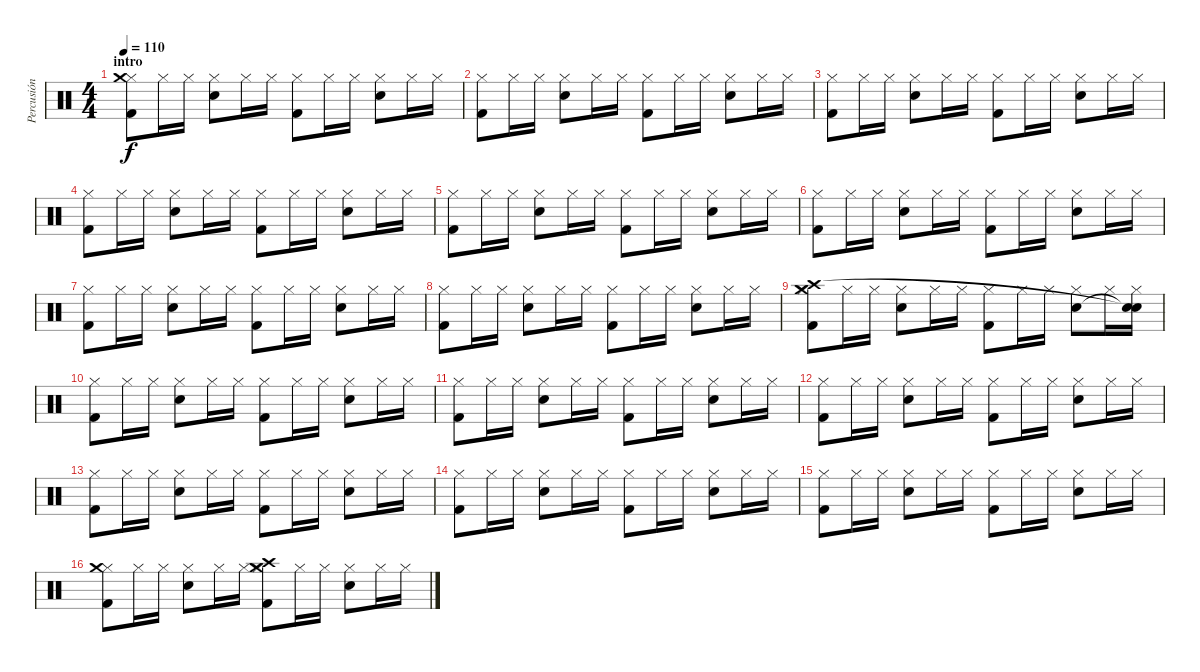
\track ("Percusión" "Percusión") {instrument percussion}
\staff {score}
\articulation defaults
\ts (4 4)
\section ("" "intro")
\tempo 110
\clef neutral
\ks c
("Hi-Hat (closed)" "Kick (hit) 2" "Crash medium (hit)").8{dy f} "Hi-Hat (closed)".16 "Hi-Hat (closed)".16 ("Hi-Hat (closed)" "Snare (hit) 2").8 "Hi-Hat (closed)".16 "Hi-Hat (closed)".16 ("Hi-Hat (closed)" "Kick (hit) 2").8 "Hi-Hat (closed)".16 "Hi-Hat (closed)".16 ("Hi-Hat (closed)" "Snare (hit) 2").8 "Hi-Hat (closed)".16 "Hi-Hat (closed)".16 |
("Hi-Hat (closed)" "Kick (hit) 2").8 "Hi-Hat (closed)".16 "Hi-Hat (closed)".16 ("Hi-Hat (closed)" "Snare (hit) 2").8 "Hi-Hat (closed)".16 "Hi-Hat (closed)".16 ("Hi-Hat (closed)" "Kick (hit) 2").8 "Hi-Hat (closed)".16 "Hi-Hat (closed)".16 ("Hi-Hat (closed)" "Snare (hit) 2").8 "Hi-Hat (closed)".16 "Hi-Hat (closed)".16 |
("Hi-Hat (closed)" "Kick (hit) 2").8 "Hi-Hat (closed)".16 "Hi-Hat (closed)".16 ("Hi-Hat (closed)" "Snare (hit) 2").8 "Hi-Hat (closed)".16 "Hi-Hat (closed)".16 ("Hi-Hat (closed)" "Kick (hit) 2").8 "Hi-Hat (closed)".16 "Hi-Hat (closed)".16 ("Hi-Hat (closed)" "Snare (hit) 2").8 "Hi-Hat (closed)".16 "Hi-Hat (closed)".16 |
("Hi-Hat (closed)" "Kick (hit) 2").8 "Hi-Hat (closed)".16 "Hi-Hat (closed)".16 ("Hi-Hat (closed)" "Snare (hit) 2").8 "Hi-Hat (closed)".16 "Hi-Hat (closed)".16 ("Hi-Hat (closed)" "Kick (hit) 2").8 "Hi-Hat (closed)".16 "Hi-Hat (closed)".16 ("Hi-Hat (closed)" "Snare (hit) 2").8 "Hi-Hat (closed)".16 "Hi-Hat (closed)".16 |
("Hi-Hat (closed)" "Kick (hit) 2").8 "Hi-Hat (closed)".16 "Hi-Hat (closed)".16 ("Hi-Hat (closed)" "Snare (hit) 2").8 "Hi-Hat (closed)".16 "Hi-Hat (closed)".16 ("Hi-Hat (closed)" "Kick (hit) 2").8 "Hi-Hat (closed)".16 "Hi-Hat (closed)".16 ("Hi-Hat (closed)" "Snare (hit) 2").8 "Hi-Hat (closed)".16 "Hi-Hat (closed)".16 |
("Hi-Hat (closed)" "Kick (hit) 2").8 "Hi-Hat (closed)".16 "Hi-Hat (closed)".16 ("Hi-Hat (closed)" "Snare (hit) 2").8 "Hi-Hat (closed)".16 "Hi-Hat (closed)".16 ("Hi-Hat (closed)" "Kick (hit) 2").8 "Hi-Hat (closed)".16 "Hi-Hat (closed)".16 ("Hi-Hat (closed)" "Snare (hit) 2").8 "Hi-Hat (closed)".16 "Hi-Hat (closed)".16 |
("Hi-Hat (closed)" "Kick (hit) 2").8 "Hi-Hat (closed)".16 "Hi-Hat (closed)".16 ("Hi-Hat (closed)" "Snare (hit) 2").8 "Hi-Hat (closed)".16 "Hi-Hat (closed)".16 ("Hi-Hat (closed)" "Kick (hit) 2").8 "Hi-Hat (closed)".16 "Hi-Hat (closed)".16 ("Hi-Hat (closed)" "Snare (hit) 2").8 "Hi-Hat (closed)".16 "Hi-Hat (closed)".16 |
("Hi-Hat (closed)" "Kick (hit) 2").8 "Hi-Hat (closed)".16 "Hi-Hat (closed)".16 ("Hi-Hat (closed)" "Snare (hit) 2").8 "Hi-Hat (closed)".16 "Hi-Hat (closed)".16 ("Hi-Hat (closed)" "Kick (hit) 2").8 "Hi-Hat (closed)".16 "Hi-Hat (closed)".16 ("Hi-Hat (closed)" "Snare (hit) 2").8 "Hi-Hat (closed)".16 "Hi-Hat (closed)".16 |
("Hi-Hat (closed)" "Kick (hit) 2" "Crash high (hit)" "Crash medium (hit)").8 "Hi-Hat (closed)".16 "Hi-Hat (closed)".16 ("Hi-Hat (closed)" "Snare (hit) 2").8 "Hi-Hat (closed)".16 "Hi-Hat (closed)".16 ("Hi-Hat (closed)" "Kick (hit) 2").8 "Hi-Hat (closed)".16 "Hi-Hat (closed)".16 ("Hi-Hat (closed)" "Snare (hit) 2").8 "Hi-Hat (closed)".16 ("Hi-Hat (closed)" "Snare (hit)"{t} "Snare (hit)"{t}).16 |
("Hi-Hat (closed)" "Kick (hit) 2").8 "Hi-Hat (closed)".16 "Hi-Hat (closed)".16 ("Hi-Hat (closed)" "Snare (hit) 2").8 "Hi-Hat (closed)".16 "Hi-Hat (closed)".16 ("Hi-Hat (closed)" "Kick (hit) 2").8 "Hi-Hat (closed)".16 "Hi-Hat (closed)".16 ("Hi-Hat (closed)" "Snare (hit) 2").8 "Hi-Hat (closed)".16 "Hi-Hat (closed)".16 |
("Hi-Hat (closed)" "Kick (hit) 2").8 "Hi-Hat (closed)".16 "Hi-Hat (closed)".16 ("Hi-Hat (closed)" "Snare (hit) 2").8 "Hi-Hat (closed)".16 "Hi-Hat (closed)".16 ("Hi-Hat (closed)" "Kick (hit) 2").8 "Hi-Hat (closed)".16 "Hi-Hat (closed)".16 ("Hi-Hat (closed)" "Snare (hit) 2").8 "Hi-Hat (closed)".16 "Hi-Hat (closed)".16 |
("Hi-Hat (closed)" "Kick (hit) 2").8 "Hi-Hat (closed)".16 "Hi-Hat (closed)".16 ("Hi-Hat (closed)" "Snare (hit) 2").8 "Hi-Hat (closed)".16 "Hi-Hat (closed)".16 ("Hi-Hat (closed)" "Kick (hit) 2").8 "Hi-Hat (closed)".16 "Hi-Hat (closed)".16 ("Hi-Hat (closed)" "Snare (hit) 2").8 "Hi-Hat (closed)".16 "Hi-Hat (closed)".16 |
("Hi-Hat (closed)" "Kick (hit) 2").8 "Hi-Hat (closed)".16 "Hi-Hat (closed)".16 ("Hi-Hat (closed)" "Snare (hit) 2").8 "Hi-Hat (closed)".16 "Hi-Hat (closed)".16 ("Hi-Hat (closed)" "Kick (hit) 2").8 "Hi-Hat (closed)".16 "Hi-Hat (closed)".16 ("Hi-Hat (closed)" "Snare (hit) 2").8 "Hi-Hat (closed)".16 "Hi-Hat (closed)".16 |
("Hi-Hat (closed)" "Kick (hit) 2").8 "Hi-Hat (closed)".16 "Hi-Hat (closed)".16 ("Hi-Hat (closed)" "Snare (hit) 2").8 "Hi-Hat (closed)".16 "Hi-Hat (closed)".16 ("Hi-Hat (closed)" "Kick (hit) 2").8 "Hi-Hat (closed)".16 "Hi-Hat (closed)".16 ("Hi-Hat (closed)" "Snare (hit) 2").8 "Hi-Hat (closed)".16 "Hi-Hat (closed)".16 |
("Hi-Hat (closed)" "Kick (hit) 2").8 "Hi-Hat (closed)".16 "Hi-Hat (closed)".16 ("Hi-Hat (closed)" "Snare (hit) 2").8 "Hi-Hat (closed)".16 "Hi-Hat (closed)".16 ("Hi-Hat (closed)" "Kick (hit) 2").8 "Hi-Hat (closed)".16 "Hi-Hat (closed)".16 ("Hi-Hat (closed)" "Snare (hit) 2").8 "Hi-Hat (closed)".16 "Hi-Hat (closed)".16 |
("Hi-Hat (closed)" "Kick (hit) 2" "Crash medium (hit)").8 "Hi-Hat (closed)".16 "Hi-Hat (closed)".16 ("Hi-Hat (closed)" "Snare (hit) 2").8 "Hi-Hat (closed)".16 "Hi-Hat (closed)".16 ("Hi-Hat (closed)" "Kick (hit) 2" "Crash high (hit)" "Crash medium (hit)").8 "Hi-Hat (closed)".16 "Hi-Hat (closed)".16 ("Hi-Hat (closed)" "Snare (hit) 2").8 "Hi-Hat (closed)".16 "Hi-Hat (closed)".16
